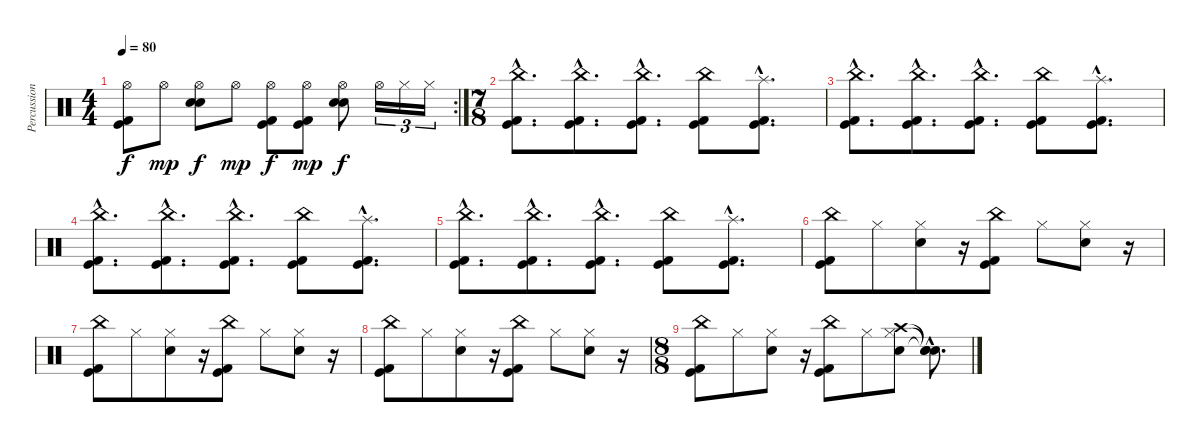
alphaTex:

\track ("Percussion" "Percussion") {instrument percussion}
\staff {score}
\articulation defaults
\rc 2
\ts (4 4)
\tempo 80
\clef neutral
\ks c
("Hi-Hat (open)" "Kick (hit) 2" "Kick (hit)").8{dy f} "Hi-Hat (open)".8{dy mp} ("Hi-Hat (open)" "Electric Snare (hit)" "Snare (hit) 2").8{dy f} "Hi-Hat (open)".8{dy mp} ("Hi-Hat (open)" "Kick (hit) 2" "Kick (hit)").8{dy f} ("Hi-Hat (open)" "Kick (hit) 2" "Kick (hit)").8{dy mp} ("Hi-Hat (open)" "Electric Snare (hit)" "Snare (hit) 2").8{dy f} "Hi-Hat (open)".16{tu (3 2)} "Hi-Hat (closed)".16{tu (3 2)} "Hi-Hat (closed)".16{tu (3 2)} |
\ts (7 8)
("China (hit)"{hac} "Kick (hit) 2"{hac} "Kick (hit)"{hac}).8{d} ("China (hit)"{hac} "Kick (hit) 2"{hac} "Kick (hit)"{hac}).8{d} ("China (hit)"{hac} "Kick (hit) 2"{hac} "Kick (hit)"{hac}).8{d} ("China (hit)" "Kick (hit) 2" "Kick (hit)").8 ("Splash (hit)"{hac} "Kick (hit) 2"{hac} "Kick (hit)"{hac}).8{d} |
("China (hit)"{hac} "Kick (hit) 2"{hac} "Kick (hit)"{hac}).8{d} ("China (hit)"{hac} "Kick (hit) 2"{hac} "Kick (hit)"{hac}).8{d} ("China (hit)"{hac} "Kick (hit) 2"{hac} "Kick (hit)"{hac}).8{d} ("China (hit)" "Kick (hit) 2" "Kick (hit)").8 ("Splash (hit)"{hac} "Kick (hit) 2"{hac} "Kick (hit)"{hac}).8{d} |
("China (hit)"{hac} "Kick (hit) 2"{hac} "Kick (hit)"{hac}).8{d} ("China (hit)"{hac} "Kick (hit) 2"{hac} "Kick (hit)"{hac}).8{d} ("China (hit)"{hac} "Kick (hit) 2"{hac} "Kick (hit)"{hac}).8{d} ("China (hit)" "Kick (hit) 2" "Kick (hit)").8 ("Splash (hit)"{hac} "Kick (hit) 2"{hac} "Kick (hit)"{hac}).8{d} |
("China (hit)"{hac} "Kick (hit) 2"{hac} "Kick (hit)"{hac}).8{d} ("China (hit)"{hac} "Kick (hit) 2"{hac} "Kick (hit)"{hac}).8{d} ("China (hit)"{hac} "Kick (hit) 2"{hac} "Kick (hit)"{hac}).8{d} ("China (hit)" "Kick (hit) 2" "Kick (hit)").8 ("Splash (hit)"{hac} "Kick (hit) 2"{hac} "Kick (hit)"{hac}).8{d} |
("China (hit)" "Kick (hit) 2" "Kick (hit)").8 "Hi-Hat (closed)".8 ("Hi-Hat (closed)" "Snare (hit) 2").8 r.16 ("China (hit)" "Kick (hit) 2" "Kick (hit)").8 "Hi-Hat (closed)".8 ("Hi-Hat (closed)" "Snare (hit) 2").8 r.16 |
("China (hit)" "Kick (hit) 2" "Kick (hit)").8 "Hi-Hat (closed)".8 ("Hi-Hat (closed)" "Snare (hit) 2").8 r.16 ("China (hit)" "Kick (hit) 2" "Kick (hit)").8 "Hi-Hat (closed)".8 ("Hi-Hat (closed)" "Snare (hit) 2").8 r.16 |
("China (hit)" "Kick (hit) 2" "Kick (hit)").8 "Hi-Hat (closed)".8 ("Hi-Hat (closed)" "Snare (hit) 2").8 r.16 ("China (hit)" "Kick (hit) 2" "Kick (hit)").8 "Hi-Hat (closed)".8 ("Hi-Hat (closed)" "Snare (hit) 2").8 r.16 |
\ts (8 8)
("China (hit)" "Kick (hit) 2" "Kick (hit)").8 "Hi-Hat (closed)".8 ("Hi-Hat (closed)" "Snare (hit) 2").8 r.16 ("China (hit)" "Kick (hit) 2" "Kick (hit)").8 "Hi-Hat (closed)".8 ("Hi-Hat (closed)" "Crash high (hit)" "Snare (hit) 2").8 ("Snare (hit)"{hac t} "Snare (hit)"{hac t} "Snare (hit)"{hac t}).8{d}
